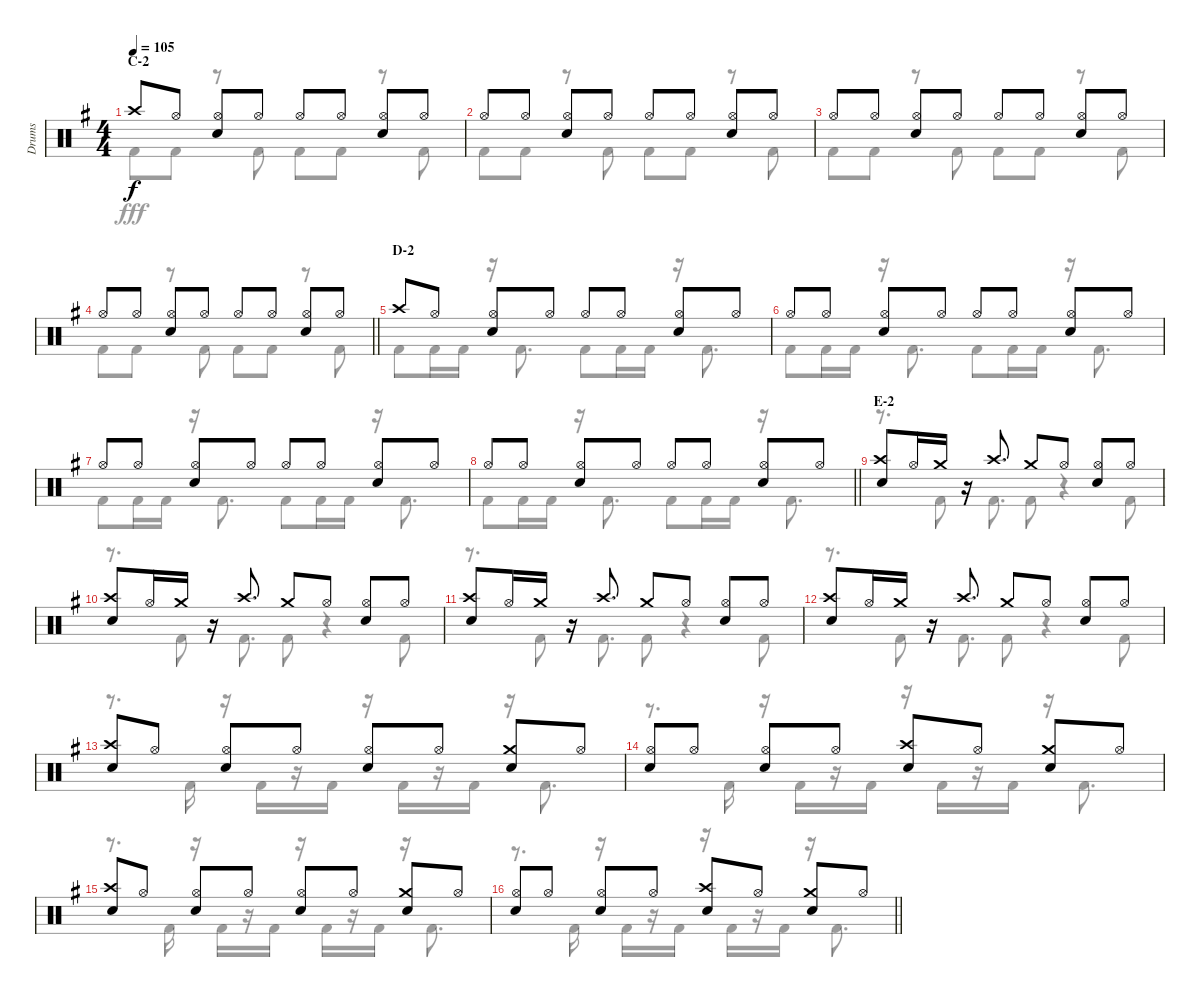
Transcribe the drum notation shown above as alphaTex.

\track ("Drums" "Drums") {instrument percussion}
\staff {score}
\articulation defaults
\voice
\ts (4 4)
\section ("" "C-2")
\tempo 105
\clef neutral
\ks g "Crash high (hit)".8{dy f} "Hi-Hat (open)".8
("Hi-Hat (open)" "Snare (hit) 2").8 "Hi-Hat (open)".8 "Hi-Hat (open)".8 "Hi-Hat (open)".8 ("Hi-Hat (open)" "Snare (hit) 2").8 "Hi-Hat (open)".8 |
"Hi-Hat (open)".8 "Hi-Hat (open)".8 ("Hi-Hat (open)" "Snare (hit) 2").8 "Hi-Hat (open)".8 "Hi-Hat (open)".8 "Hi-Hat (open)".8 ("Hi-Hat (open)" "Snare (hit) 2").8 "Hi-Hat (open)".8 |
"Hi-Hat (open)".8 "Hi-Hat (open)".8 ("Hi-Hat (open)" "Snare (hit) 2").8 "Hi-Hat (open)".8 "Hi-Hat (open)".8 "Hi-Hat (open)".8 ("Hi-Hat (open)" "Snare (hit) 2").8 "Hi-Hat (open)".8 |
\barLineRight lightlight "Hi-Hat (open)".8 "Hi-Hat (open)".8
("Hi-Hat (open)" "Snare (hit) 2").8 "Hi-Hat (open)".8 "Hi-Hat (open)".8 "Hi-Hat (open)".8 ("Hi-Hat (open)" "Snare (hit) 2").8 "Hi-Hat (open)".8 |
\section ("" "D-2")
"Crash high (hit)".8 "Hi-Hat (open)".8 ("Hi-Hat (open)" "Snare (hit) 2").8 "Hi-Hat (open)".8 "Hi-Hat (open)".8 "Hi-Hat (open)".8 ("Hi-Hat (open)" "Snare (hit) 2").8 "Hi-Hat (open)".8 |
"Hi-Hat (open)".8 "Hi-Hat (open)".8 ("Hi-Hat (open)" "Snare (hit) 2").8 "Hi-Hat (open)".8 "Hi-Hat (open)".8 "Hi-Hat (open)".8 ("Hi-Hat (open)" "Snare (hit) 2").8 "Hi-Hat (open)".8 |
"Hi-Hat (open)".8 "Hi-Hat (open)".8 ("Hi-Hat (open)" "Snare (hit) 2").8 "Hi-Hat (open)".8 "Hi-Hat (open)".8 "Hi-Hat (open)".8 ("Hi-Hat (open)" "Snare (hit) 2").8 "Hi-Hat (open)".8 |
\barLineRight lightlight "Hi-Hat (open)".8 "Hi-Hat (open)".8
("Hi-Hat (open)" "Snare (hit) 2").8 "Hi-Hat (open)".8 "Hi-Hat (open)".8 "Hi-Hat (open)".8 ("Hi-Hat (open)" "Snare (hit) 2").8 "Hi-Hat (open)".8 |
\section ("" "E-2")
("Crash high (hit)" "Snare (hit) 2").8 "Hi-Hat (open)".16 "Crash medium (hit)".16 r.16 "Crash high (hit)".8{d} "Crash medium (hit)".8 "Hi-Hat (open)".8 ("Hi-Hat (open)" "Snare (hit) 2").8 "Hi-Hat (open)".8 |
("Crash high (hit)" "Snare (hit) 2").8 "Hi-Hat (open)".16 "Crash medium (hit)".16 r.16 "Crash high (hit)".8{d} "Crash medium (hit)".8 "Hi-Hat (open)".8 ("Hi-Hat (open)" "Snare (hit) 2").8 "Hi-Hat (open)".8 |
("Crash high (hit)" "Snare (hit) 2").8 "Hi-Hat (open)".16 "Crash medium (hit)".16 r.16 "Crash high (hit)".8{d} "Crash medium (hit)".8 "Hi-Hat (open)".8 ("Hi-Hat (open)" "Snare (hit) 2").8 "Hi-Hat (open)".8 |
("Crash high (hit)" "Snare (hit) 2").8 "Hi-Hat (open)".16 "Crash medium (hit)".16 r.16 "Crash high (hit)".8{d} "Crash medium (hit)".8 "Hi-Hat (open)".8 ("Hi-Hat (open)" "Snare (hit) 2").8 "Hi-Hat (open)".8 |
("Crash high (hit)" "Snare (hit) 2").8 "Hi-Hat (open)".8 ("Hi-Hat (open)" "Snare (hit) 2").8 "Hi-Hat (open)".8 ("Hi-Hat (open)" "Snare (hit) 2").8 "Hi-Hat (open)".8 ("Crash medium (hit)" "Snare (hit) 2").8 "Hi-Hat (open)".8 |
("Hi-Hat (open)" "Snare (hit) 2").8 "Hi-Hat (open)".8 ("Hi-Hat (open)" "Snare (hit) 2").8 "Hi-Hat (open)".8 ("Crash high (hit)" "Snare (hit) 2").8 "Hi-Hat (open)".8 ("Crash medium (hit)" "Snare (hit) 2").8 "Hi-Hat (open)".8 |
("Crash high (hit)" "Snare (hit) 2").8 "Hi-Hat (open)".8 ("Hi-Hat (open)" "Snare (hit) 2").8 "Hi-Hat (open)".8 ("Hi-Hat (open)" "Snare (hit) 2").8 "Hi-Hat (open)".8 ("Crash medium (hit)" "Snare (hit) 2").8 "Hi-Hat (open)".8 |
\barLineRight lightlight
("Hi-Hat (open)" "Snare (hit) 2").8 "Hi-Hat (open)".8 ("Hi-Hat (open)" "Snare (hit) 2").8 "Hi-Hat (open)".8 ("Crash high (hit)" "Snare (hit) 2").8 "Hi-Hat (open)".8 ("Crash medium (hit)" "Snare (hit) 2").8 "Hi-Hat (open)".8
\voice
\clef neutral
\ottava regular
\simile none
\ks g "Kick (hit) 2".8{dy fff} "Kick (hit) 2".8
r.8 "Kick (hit) 2".8 "Kick (hit) 2".8 "Kick (hit) 2".8 r.8 "Kick (hit) 2".8 |
"Kick (hit) 2".8 "Kick (hit) 2".8 r.8 "Kick (hit) 2".8 "Kick (hit) 2".8 "Kick (hit) 2".8 r.8 "Kick (hit) 2".8 |
"Kick (hit) 2".8 "Kick (hit) 2".8 r.8 "Kick (hit) 2".8 "Kick (hit) 2".8 "Kick (hit) 2".8 r.8 "Kick (hit) 2".8 |
\barLineRight lightlight "Kick (hit) 2".8 "Kick (hit) 2".8
r.8 "Kick (hit) 2".8 "Kick (hit) 2".8 "Kick (hit) 2".8 r.8 "Kick (hit) 2".8 |
"Kick (hit) 2".8 "Kick (hit) 2".16 "Kick (hit) 2".16 r.16 "Kick (hit) 2".8{d} "Kick (hit) 2".8 "Kick (hit) 2".16 "Kick (hit) 2".16 r.16 "Kick (hit) 2".8{d} |
"Kick (hit) 2".8 "Kick (hit) 2".16 "Kick (hit) 2".16 r.16 "Kick (hit) 2".8{d} "Kick (hit) 2".8 "Kick (hit) 2".16 "Kick (hit) 2".16 r.16 "Kick (hit) 2".8{d} |
"Kick (hit) 2".8 "Kick (hit) 2".16 "Kick (hit) 2".16 r.16 "Kick (hit) 2".8{d} "Kick (hit) 2".8 "Kick (hit) 2".16 "Kick (hit) 2".16 r.16 "Kick (hit) 2".8{d} |
\barLineRight lightlight "Kick (hit) 2".8 "Kick (hit) 2".16 "Kick (hit) 2".16
r.16 "Kick (hit) 2".8{d} "Kick (hit) 2".8 "Kick (hit) 2".16 "Kick (hit) 2".16 r.16 "Kick (hit) 2".8{d} |
r.8{d} "Kick (hit) 2".8 "Kick (hit) 2".8{d} "Kick (hit) 2".8 r.4 "Kick (hit) 2".8 |
r.8{d} "Kick (hit) 2".8 "Kick (hit) 2".8{d} "Kick (hit) 2".8 r.4 "Kick (hit) 2".8 |
r.8{d} "Kick (hit) 2".8 "Kick (hit) 2".8{d} "Kick (hit) 2".8 r.4 "Kick (hit) 2".8 |
r.8{d} "Kick (hit) 2".8 "Kick (hit) 2".8{d} "Kick (hit) 2".8 r.4 "Kick (hit) 2".8 |
r.8{d} "Kick (hit) 2".16 r.16 "Kick (hit) 2".16 r.16 "Kick (hit) 2".16 r.16 "Kick (hit) 2".16 r.16 "Kick (hit) 2".16 r.16 "Kick (hit) 2".8{d} |
r.8{d} "Kick (hit) 2".16 r.16 "Kick (hit) 2".16 r.16 "Kick (hit) 2".16 r.16 "Kick (hit) 2".16 r.16 "Kick (hit) 2".16 r.16 "Kick (hit) 2".8{d} |
r.8{d} "Kick (hit) 2".16 r.16 "Kick (hit) 2".16 r.16 "Kick (hit) 2".16 r.16 "Kick (hit) 2".16 r.16 "Kick (hit) 2".16 r.16 "Kick (hit) 2".8{d} |
\barLineRight lightlight
r.8{d} "Kick (hit) 2".16 r.16 "Kick (hit) 2".16 r.16 "Kick (hit) 2".16 r.16 "Kick (hit) 2".16 r.16 "Kick (hit) 2".16 r.16 "Kick (hit) 2".8{d}
